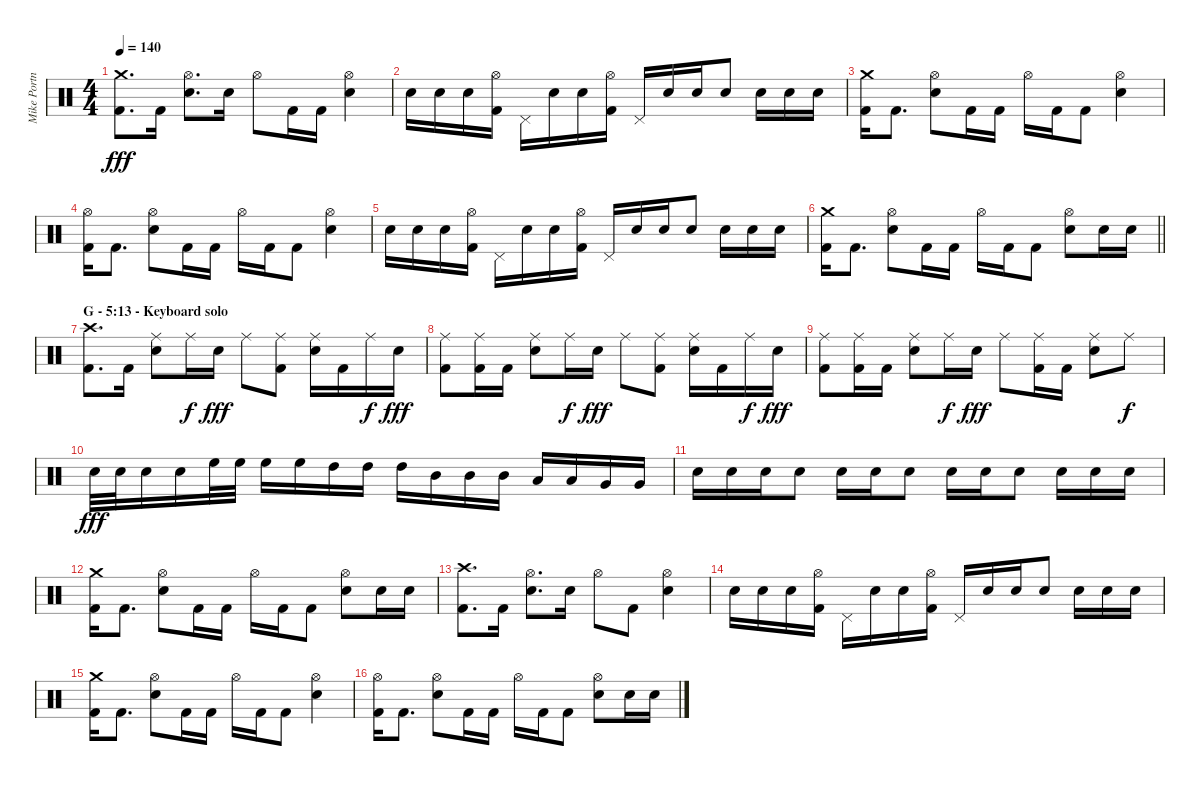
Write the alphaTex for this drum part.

\track ("Mike Portnoy" "Mike Portn") {instrument percussion}
\staff {score}
\articulation defaults
\ts (4 4)
\tempo 140
\clef neutral
\ks c
("Crash medium (hit)" "Kick (hit) 2").8{d dy fff} "Kick (hit) 2".16 ("Hi-Hat (open)" "Snare (hit) 2").8{d} "Snare (hit) 2".16 "Hi-Hat (open)".8 "Kick (hit) 2".16 "Kick (hit) 2".16 ("Hi-Hat (open)" "Snare (hit) 2").4 |
"Snare (hit) 2".16 "Snare (hit) 2".16 "Snare (hit) 2".16 ("Hi-Hat (open)" "Kick (hit) 2").16 "Pedal Hi-Hat (hit)".16 "Snare (hit) 2".16 "Snare (hit) 2".16 ("Hi-Hat (open)" "Kick (hit) 2").16 "Pedal Hi-Hat (hit)".16 "Snare (hit) 2".16 "Snare (hit) 2".16 "Snare (hit) 2".8 "Snare (hit) 2".16 "Snare (hit) 2".16 "Snare (hit) 2".16 |
("Crash medium (hit)" "Kick (hit) 2").16 "Kick (hit) 2".8{d} ("Hi-Hat (open)" "Snare (hit) 2").8 "Kick (hit) 2".16 "Kick (hit) 2".16 "Hi-Hat (open)".16 "Kick (hit) 2".16 "Kick (hit) 2".8 ("Hi-Hat (open)" "Snare (hit) 2").4 |
("Hi-Hat (open)" "Kick (hit) 2").16 "Kick (hit) 2".8{d} ("Hi-Hat (open)" "Snare (hit) 2").8 "Kick (hit) 2".16 "Kick (hit) 2".16 "Hi-Hat (open)".16 "Kick (hit) 2".16 "Kick (hit) 2".8 ("Hi-Hat (open)" "Snare (hit) 2").4 |
"Snare (hit) 2".16 "Snare (hit) 2".16 "Snare (hit) 2".16 ("Hi-Hat (open)" "Kick (hit) 2").16 "Pedal Hi-Hat (hit)".16 "Snare (hit) 2".16 "Snare (hit) 2".16 ("Hi-Hat (open)" "Kick (hit) 2").16 "Pedal Hi-Hat (hit)".16 "Snare (hit) 2".16 "Snare (hit) 2".16 "Snare (hit) 2".8 "Snare (hit) 2".16 "Snare (hit) 2".16 "Snare (hit) 2".16 |
\barLineRight lightlight
("Crash medium (hit)" "Kick (hit) 2").16 "Kick (hit) 2".8{d} ("Hi-Hat (open)" "Snare (hit) 2").8 "Kick (hit) 2".16 "Kick (hit) 2".16 "Hi-Hat (open)".16 "Kick (hit) 2".16 "Kick (hit) 2".8 ("Hi-Hat (open)" "Snare (hit) 2").8 "Snare (hit) 2".16 "Snare (hit) 2".16 |
\section ("" "G - 5:13 - Keyboard solo")
("Crash high (hit)" "Kick (hit) 2").8{d} "Kick (hit) 2".16 ("Ride (middle)" "Snare (hit) 2").8 "Ride (middle)".16{dy f} "Snare (hit) 2".16{dy fff} "Ride (middle)".8 ("Ride (middle)" "Kick (hit) 2").8 ("Ride (middle)" "Snare (hit) 2").16 "Kick (hit) 2".16 "Ride (middle)".16{dy f} "Snare (hit) 2".16{dy fff} |
("Ride (middle)" "Kick (hit) 2").8 ("Ride (middle)" "Kick (hit) 2").16 "Kick (hit) 2".16 ("Ride (middle)" "Snare (hit) 2").8 "Ride (middle)".16{dy f} "Snare (hit) 2".16{dy fff} "Ride (middle)".8 ("Ride (middle)" "Kick (hit) 2").8 ("Ride (middle)" "Snare (hit) 2").16 "Kick (hit) 2".16 "Ride (middle)".16{dy f} "Snare (hit) 2".16{dy fff} |
("Ride (middle)" "Kick (hit) 2").8 ("Ride (middle)" "Kick (hit) 2").16 "Kick (hit) 2".16 ("Ride (middle)" "Snare (hit) 2").8 "Ride (middle)".16{dy f} "Snare (hit) 2".16{dy fff} "Ride (middle)".8 ("Ride (middle)" "Kick (hit) 2").16 "Kick (hit) 2".16 ("Ride (middle)" "Snare (hit) 2").8 "Ride (middle)".8{dy f} |
"Snare (hit) 2".32{dy fff} "Snare (hit) 2".32 "Snare (hit) 2".16 "Snare (hit) 2".16 "High Floor Tom (hit)".32 "High Floor Tom (hit)".32 "High Floor Tom (hit)".16 "High Floor Tom (hit)".16 "High Tom (hit)".16 "High Tom (hit)".16 "High Tom (hit)".16 "Mid Tom (hit)".16 "Mid Tom (hit)".16 "Mid Tom (hit)".16 "Low Tom (hit)".16 "Low Tom (hit)".16 "Very Low Tom (hit)".16 "Very Low Tom (hit)".16 |
"Snare (hit) 2".16 "Snare (hit) 2".16 "Snare (hit) 2".16 "Snare (hit) 2".8 "Snare (hit) 2".16 "Snare (hit) 2".16 "Snare (hit) 2".8 "Snare (hit) 2".16 "Snare (hit) 2".16 "Snare (hit) 2".8 "Snare (hit) 2".16 "Snare (hit) 2".16 "Snare (hit) 2".16 |
("Crash medium (hit)" "Kick (hit) 2").16 "Kick (hit) 2".8{d} ("Hi-Hat (open)" "Snare (hit) 2").8 "Kick (hit) 2".16 "Kick (hit) 2".16 "Hi-Hat (open)".16 "Kick (hit) 2".16 "Kick (hit) 2".8 ("Hi-Hat (open)" "Snare (hit) 2").8 "Snare (hit) 2".16 "Snare (hit) 2".16 |
("Crash high (hit)" "Kick (hit) 2").8{d} "Kick (hit) 2".16 ("Hi-Hat (open)" "Snare (hit) 2").8{d} "Snare (hit) 2".16 "Hi-Hat (open)".8 "Kick (hit) 2".8 ("Hi-Hat (open)" "Snare (hit) 2").4 |
"Snare (hit) 2".16 "Snare (hit) 2".16 "Snare (hit) 2".16 ("Hi-Hat (open)" "Kick (hit) 2").16 "Pedal Hi-Hat (hit)".16 "Snare (hit) 2".16 "Snare (hit) 2".16 ("Hi-Hat (open)" "Kick (hit) 2").16 "Pedal Hi-Hat (hit)".16 "Snare (hit) 2".16 "Snare (hit) 2".16 "Snare (hit) 2".8 "Snare (hit) 2".16 "Snare (hit) 2".16 "Snare (hit) 2".16 |
("Crash medium (hit)" "Kick (hit) 2").16 "Kick (hit) 2".8{d} ("Hi-Hat (open)" "Snare (hit) 2").8 "Kick (hit) 2".16 "Kick (hit) 2".16 "Hi-Hat (open)".16 "Kick (hit) 2".16 "Kick (hit) 2".8 ("Hi-Hat (open)" "Snare (hit) 2").4 |
("Hi-Hat (open)" "Kick (hit) 2").16 "Kick (hit) 2".8{d} ("Hi-Hat (open)" "Snare (hit) 2").8 "Kick (hit) 2".16 "Kick (hit) 2".16 "Hi-Hat (open)".16 "Kick (hit) 2".16 "Kick (hit) 2".8 ("Hi-Hat (open)" "Snare (hit) 2").8 "Snare (hit) 2".16 "Snare (hit) 2".16
